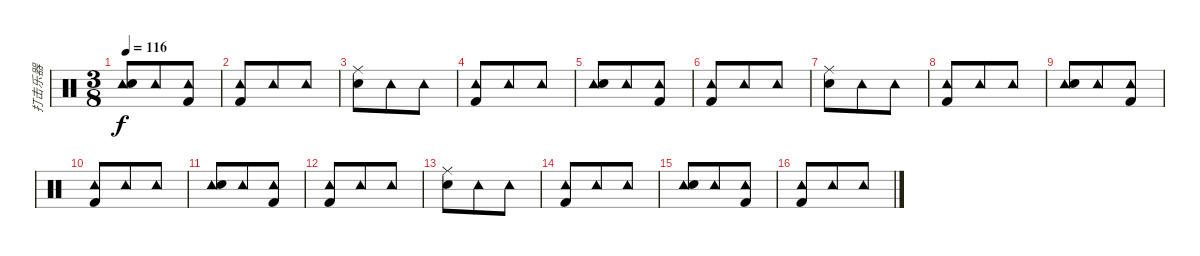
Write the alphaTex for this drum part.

\track ("打击乐器" "打击乐器") {instrument percussion}
\staff {score}
\articulation defaults
\ts (3 8)
\tempo 116
\clef neutral
\ks c
("Tambourine (hit)" "Snare (hit) 2").8{dy f} "Tambourine (hit)".8 ("Tambourine (hit)" "Kick (hit) 2").8 |
("Tambourine (hit)" "Kick (hit) 2").8 "Tambourine (hit)".8 "Tambourine (hit)".8 |
("Ride (middle)" "Snare (hit) 2").8 "Tambourine (hit)".8 "Tambourine (hit)".8 |
("Tambourine (hit)" "Kick (hit) 2").8 "Tambourine (hit)".8 "Tambourine (hit)".8 |
("Tambourine (hit)" "Snare (hit) 2").8 "Tambourine (hit)".8 ("Tambourine (hit)" "Kick (hit) 2").8 |
("Tambourine (hit)" "Kick (hit) 2").8 "Tambourine (hit)".8 "Tambourine (hit)".8 |
("Ride (middle)" "Snare (hit) 2").8 "Tambourine (hit)".8 "Tambourine (hit)".8 |
("Tambourine (hit)" "Kick (hit) 2").8 "Tambourine (hit)".8 "Tambourine (hit)".8 |
("Tambourine (hit)" "Snare (hit) 2").8 "Tambourine (hit)".8 ("Tambourine (hit)" "Kick (hit) 2").8 |
("Tambourine (hit)" "Kick (hit) 2").8 "Tambourine (hit)".8 "Tambourine (hit)".8 |
("Tambourine (hit)" "Snare (hit) 2").8 "Tambourine (hit)".8 ("Tambourine (hit)" "Kick (hit) 2").8 |
("Tambourine (hit)" "Kick (hit) 2").8 "Tambourine (hit)".8 "Tambourine (hit)".8 |
("Ride (middle)" "Snare (hit) 2").8 "Tambourine (hit)".8 "Tambourine (hit)".8 |
("Tambourine (hit)" "Kick (hit) 2").8 "Tambourine (hit)".8 "Tambourine (hit)".8 |
("Tambourine (hit)" "Snare (hit) 2").8 "Tambourine (hit)".8 ("Tambourine (hit)" "Kick (hit) 2").8 |
("Tambourine (hit)" "Kick (hit) 2").8 "Tambourine (hit)".8 "Tambourine (hit)".8
